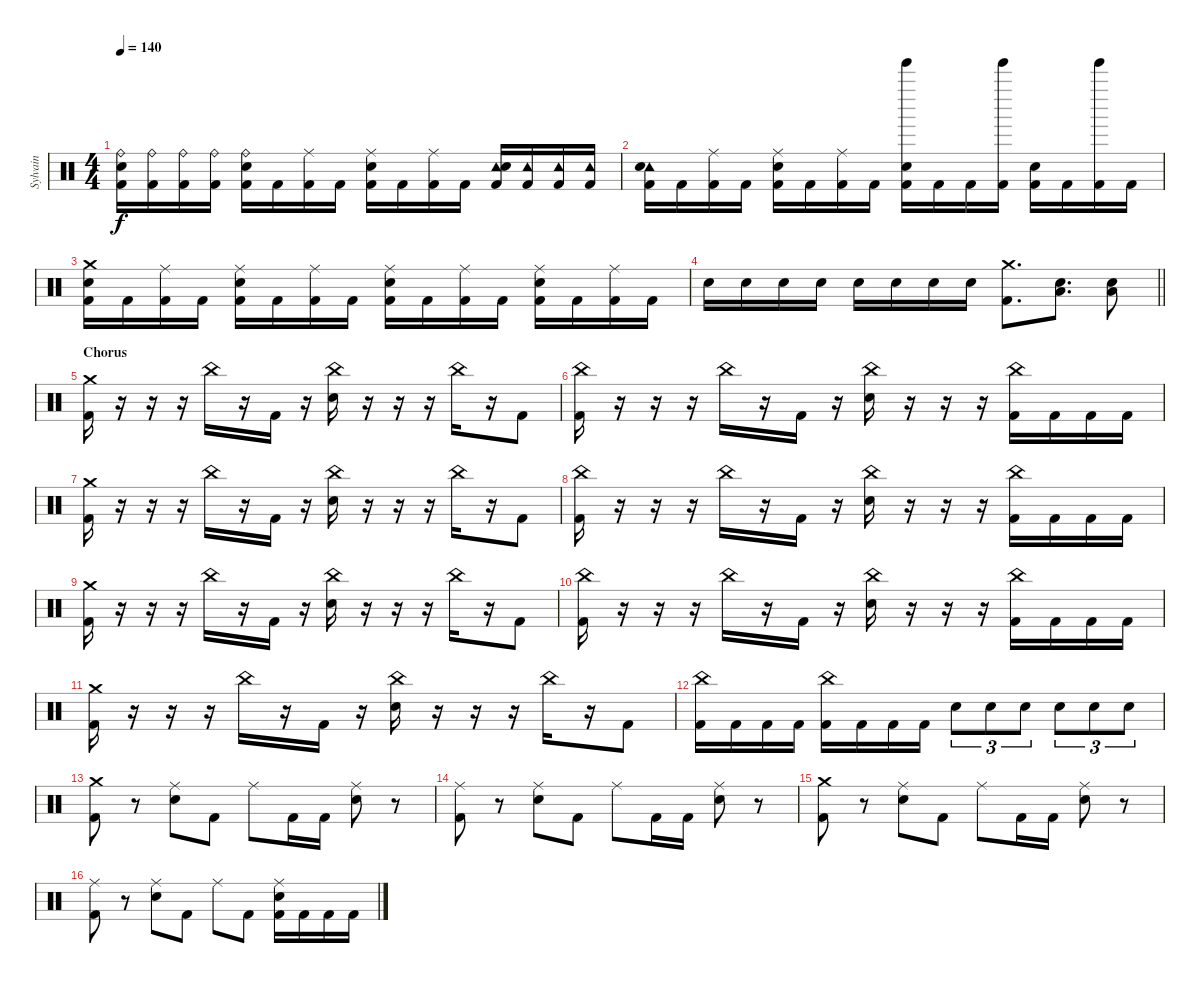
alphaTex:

\track ("Sylvain" "Sylvain") {instrument percussion}
\staff {score}
\articulation defaults
\ts (4 4)
\tempo 140
\clef neutral
\ks c
("Ride (bell)" "Snare (hit) 2" "Kick (hit) 2").16{dy f} ("Ride (bell)" "Kick (hit) 2").16 ("Ride (bell)" "Kick (hit) 2").16 ("Ride (bell)" "Kick (hit) 2").16 ("Ride (bell)" "Snare (hit) 2" "Kick (hit) 2").16 "Kick (hit) 2".16 ("Ride (middle)" "Kick (hit) 2").16 "Kick (hit) 2".16 ("Ride (middle)" "Snare (hit) 2" "Kick (hit) 2").16 "Kick (hit) 2".16 ("Ride (middle)" "Kick (hit) 2").16 "Kick (hit) 2".16 ("Tambourine (hit)" "Snare (hit) 2" "Kick (hit) 2").16 ("Tambourine (hit)" "Kick (hit) 2").16 ("Tambourine (hit)" "Kick (hit) 2").16 ("Tambourine (hit)" "Kick (hit) 2").16 |
("Tambourine (hit)" "Snare (hit) 2" "Kick (hit) 2").16 "Kick (hit) 2".16 ("Ride (middle)" "Kick (hit) 2").16 "Kick (hit) 2".16 ("Ride (middle)" "Snare (hit) 2" "Kick (hit) 2").16 "Kick (hit) 2".16 ("Ride (middle)" "Kick (hit) 2").16 "Kick (hit) 2".16 ("Tinkle Bell (hit)" "Snare (hit) 2" "Kick (hit) 2").16 "Kick (hit) 2".16 "Kick (hit) 2".16 ("Tinkle Bell (hit)" "Kick (hit) 2").16 ("Snare (hit) 2" "Kick (hit) 2").16 "Kick (hit) 2".16 ("Tinkle Bell (hit)" "Kick (hit) 2").16 "Kick (hit) 2".16 |
("Crash medium (hit)" "Snare (hit) 2" "Kick (hit) 2").16 "Kick (hit) 2".16 ("Ride (middle)" "Kick (hit) 2").16 "Kick (hit) 2".16 ("Ride (middle)" "Snare (hit) 2" "Kick (hit) 2").16 "Kick (hit) 2".16 ("Ride (middle)" "Kick (hit) 2").16 "Kick (hit) 2".16 ("Ride (middle)" "Snare (hit) 2" "Kick (hit) 2").16 "Kick (hit) 2".16 ("Ride (middle)" "Kick (hit) 2").16 "Kick (hit) 2".16 ("Ride (middle)" "Snare (hit) 2" "Kick (hit) 2").16 "Kick (hit) 2".16 ("Ride (middle)" "Kick (hit) 2").16 "Kick (hit) 2".16 |
\barLineRight lightlight "Snare (hit) 2".16 "Snare (hit) 2".16 "Snare (hit) 2".16 "Snare (hit) 2".16 "Snare (hit) 2".16 "Snare (hit) 2".16 "Snare (hit) 2".16 "Snare (hit) 2".16
("Crash medium (hit)" "Kick (hit) 2").8{d} ("Snare (hit) 2" "Low Floor Tom (hit)").8{d} ("Snare (hit) 2" "Low Floor Tom (hit)").8 |
\section ("" "Chorus")
("Crash medium (hit)" "Kick (hit) 2").16 r.16 r.16 r.16 "China (hit)".16 r.16 "Kick (hit) 2".16 r.16 ("China (hit)" "Snare (hit) 2").16 r.16 r.16 r.16 "China (hit)".16 r.16 "Kick (hit) 2".8 |
("China (hit)" "Kick (hit) 2").16 r.16 r.16 r.16 "China (hit)".16 r.16 "Kick (hit) 2".16 r.16 ("China (hit)" "Snare (hit) 2").16 r.16 r.16 r.16 ("China (hit)" "Kick (hit) 2").16 "Kick (hit) 2".16 "Kick (hit) 2".16 "Kick (hit) 2".16 |
("Crash medium (hit)" "Kick (hit) 2").16 r.16 r.16 r.16 "China (hit)".16 r.16 "Kick (hit) 2".16 r.16 ("China (hit)" "Snare (hit) 2").16 r.16 r.16 r.16 "China (hit)".16 r.16 "Kick (hit) 2".8 |
("China (hit)" "Kick (hit) 2").16 r.16 r.16 r.16 "China (hit)".16 r.16 "Kick (hit) 2".16 r.16 ("China (hit)" "Snare (hit) 2").16 r.16 r.16 r.16 ("China (hit)" "Kick (hit) 2").16 "Kick (hit) 2".16 "Kick (hit) 2".16 "Kick (hit) 2".16 |
("Crash medium (hit)" "Kick (hit) 2").16 r.16 r.16 r.16 "China (hit)".16 r.16 "Kick (hit) 2".16 r.16 ("China (hit)" "Snare (hit) 2").16 r.16 r.16 r.16 "China (hit)".16 r.16 "Kick (hit) 2".8 |
("China (hit)" "Kick (hit) 2").16 r.16 r.16 r.16 "China (hit)".16 r.16 "Kick (hit) 2".16 r.16 ("China (hit)" "Snare (hit) 2").16 r.16 r.16 r.16 ("China (hit)" "Kick (hit) 2").16 "Kick (hit) 2".16 "Kick (hit) 2".16 "Kick (hit) 2".16 |
("Crash medium (hit)" "Kick (hit) 2").16 r.16 r.16 r.16 "China (hit)".16 r.16 "Kick (hit) 2".16 r.16 ("China (hit)" "Snare (hit) 2").16 r.16 r.16 r.16 "China (hit)".16 r.16 "Kick (hit) 2".8 |
("China (hit)" "Kick (hit) 2").16 "Kick (hit) 2".16 "Kick (hit) 2".16 "Kick (hit) 2".16 ("China (hit)" "Kick (hit) 2").16 "Kick (hit) 2".16 "Kick (hit) 2".16 "Kick (hit) 2".16 "Snare (hit) 2".8{tu (3 2)} "Snare (hit) 2".8{tu (3 2)} "Snare (hit) 2".8{tu (3 2)} "Snare (hit) 2".8{tu (3 2)} "Snare (hit) 2".8{tu (3 2)} "Snare (hit) 2".8{tu (3 2)} |
("Crash medium (hit)" "Kick (hit) 2").8 r.8 ("Ride (middle)" "Snare (hit) 2").8 "Kick (hit) 2".8 "Ride (middle)".8 "Kick (hit) 2".16 "Kick (hit) 2".16 ("Ride (middle)" "Snare (hit) 2").8 r.8 |
("Ride (middle)" "Kick (hit) 2").8 r.8 ("Ride (middle)" "Snare (hit) 2").8 "Kick (hit) 2".8 "Ride (middle)".8 "Kick (hit) 2".16 "Kick (hit) 2".16 ("Ride (middle)" "Snare (hit) 2").8 r.8 |
("Crash medium (hit)" "Kick (hit) 2").8 r.8 ("Ride (middle)" "Snare (hit) 2").8 "Kick (hit) 2".8 "Ride (middle)".8 "Kick (hit) 2".16 "Kick (hit) 2".16 ("Ride (middle)" "Snare (hit) 2").8 r.8 |
("Ride (middle)" "Kick (hit) 2").8 r.8 ("Ride (middle)" "Snare (hit) 2").8 "Kick (hit) 2".8 "Ride (middle)".8 "Kick (hit) 2".8 ("Ride (middle)" "Snare (hit) 2" "Kick (hit) 2").16 "Kick (hit) 2".16 "Kick (hit) 2".16 "Kick (hit) 2".16
